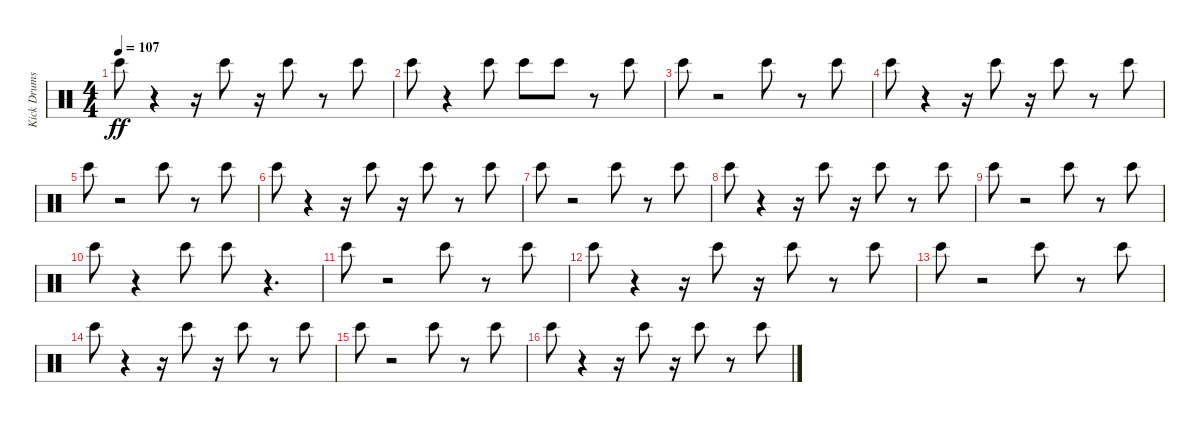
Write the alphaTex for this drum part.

\track ("Kick Drums" "Kick Drums") {instrument percussion}
\staff {score}
\articulation defaults
\ts (4 4)
\tempo 107
\clef neutral
\ks c "Bongo High (hit)".8{dy ff}
r.4 r.16 "Bongo High (hit)".8 r.16 "Bongo High (hit)".8 r.8 "Bongo High (hit)".8 |
"Bongo High (hit)".8 r.4 "Bongo High (hit)".8 "Bongo High (hit)".8 "Bongo High (hit)".8 r.8 "Bongo High (hit)".8 |
"Bongo High (hit)".8 r.2 "Bongo High (hit)".8 r.8 "Bongo High (hit)".8 |
"Bongo High (hit)".8 r.4 r.16 "Bongo High (hit)".8 r.16 "Bongo High (hit)".8 r.8 "Bongo High (hit)".8 |
"Bongo High (hit)".8 r.2 "Bongo High (hit)".8 r.8 "Bongo High (hit)".8 |
"Bongo High (hit)".8 r.4 r.16 "Bongo High (hit)".8 r.16 "Bongo High (hit)".8 r.8 "Bongo High (hit)".8 |
"Bongo High (hit)".8 r.2 "Bongo High (hit)".8 r.8 "Bongo High (hit)".8 |
"Bongo High (hit)".8 r.4 r.16 "Bongo High (hit)".8 r.16 "Bongo High (hit)".8 r.8 "Bongo High (hit)".8 |
"Bongo High (hit)".8 r.2 "Bongo High (hit)".8 r.8 "Bongo High (hit)".8 |
"Bongo High (hit)".8 r.4 "Bongo High (hit)".8 "Bongo High (hit)".8 r.4{d} |
"Bongo High (hit)".8 r.2 "Bongo High (hit)".8 r.8 "Bongo High (hit)".8 |
"Bongo High (hit)".8 r.4 r.16 "Bongo High (hit)".8 r.16 "Bongo High (hit)".8 r.8 "Bongo High (hit)".8 |
"Bongo High (hit)".8 r.2 "Bongo High (hit)".8 r.8 "Bongo High (hit)".8 |
"Bongo High (hit)".8 r.4 r.16 "Bongo High (hit)".8 r.16 "Bongo High (hit)".8 r.8 "Bongo High (hit)".8 |
"Bongo High (hit)".8 r.2 "Bongo High (hit)".8 r.8 "Bongo High (hit)".8 |
"Bongo High (hit)".8 r.4 r.16 "Bongo High (hit)".8 r.16 "Bongo High (hit)".8 r.8 "Bongo High (hit)".8
